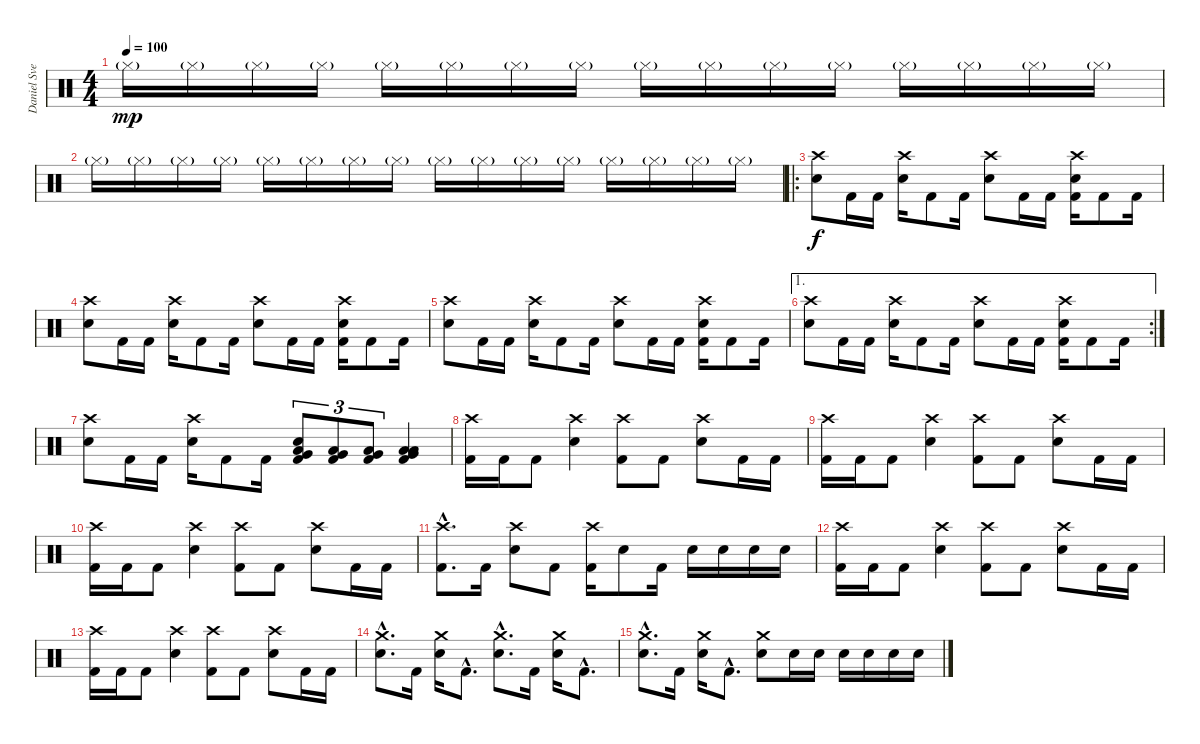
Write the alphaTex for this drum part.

\track ("Daniel Svensson" "Daniel Sve") {instrument percussion}
\staff {score}
\articulation defaults
\ts (4 4)
\tempo 100
\clef neutral
\ks c "Hi-Hat (closed)"{g}.16{dy mp} "Hi-Hat (closed)"{g}.16 "Hi-Hat (closed)"{g}.16 "Hi-Hat (closed)"{g}.16 "Hi-Hat (closed)"{g}.16 "Hi-Hat (closed)"{g}.16 "Hi-Hat (closed)"{g}.16 "Hi-Hat (closed)"{g}.16 "Hi-Hat (closed)"{g}.16 "Hi-Hat (closed)"{g}.16 "Hi-Hat (closed)"{g}.16 "Hi-Hat (closed)"{g}.16 "Hi-Hat (closed)"{g}.16 "Hi-Hat (closed)"{g}.16 "Hi-Hat (closed)"{g}.16 "Hi-Hat (closed)"{g}.16
|
"Hi-Hat (closed)"{g}.16 "Hi-Hat (closed)"{g}.16 "Hi-Hat (closed)"{g}.16 "Hi-Hat (closed)"{g}.16 "Hi-Hat (closed)"{g}.16 "Hi-Hat (closed)"{g}.16 "Hi-Hat (closed)"{g}.16 "Hi-Hat (closed)"{g}.16 "Hi-Hat (closed)"{g}.16 "Hi-Hat (closed)"{g}.16 "Hi-Hat (closed)"{g}.16 "Hi-Hat (closed)"{g}.16 "Hi-Hat (closed)"{g}.16 "Hi-Hat (closed)"{g}.16 "Hi-Hat (closed)"{g}.16 "Hi-Hat (closed)"{g}.16 |
\ro
("Crash high (hit)" "Snare (hit) 2").8{dy f} "Kick (hit) 2".16 "Kick (hit) 2".16 ("Crash high (hit)" "Snare (hit) 2").16 "Kick (hit) 2".8 "Kick (hit) 2".16 ("Crash high (hit)" "Snare (hit) 2").8 "Kick (hit) 2".16 "Kick (hit) 2".16 ("Crash high (hit)" "Snare (hit) 2" "Kick (hit) 2").16 "Kick (hit) 2".8 "Kick (hit) 2".16 |
("Crash high (hit)" "Snare (hit) 2").8 "Kick (hit) 2".16 "Kick (hit) 2".16 ("Crash high (hit)" "Snare (hit) 2").16 "Kick (hit) 2".8 "Kick (hit) 2".16 ("Crash high (hit)" "Snare (hit) 2").8 "Kick (hit) 2".16 "Kick (hit) 2".16 ("Crash high (hit)" "Snare (hit) 2" "Kick (hit) 2").16 "Kick (hit) 2".8 "Kick (hit) 2".16 |
("Crash high (hit)" "Snare (hit) 2").8 "Kick (hit) 2".16 "Kick (hit) 2".16 ("Crash high (hit)" "Snare (hit) 2").16 "Kick (hit) 2".8 "Kick (hit) 2".16 ("Crash high (hit)" "Snare (hit) 2").8 "Kick (hit) 2".16 "Kick (hit) 2".16 ("Crash high (hit)" "Snare (hit) 2" "Kick (hit) 2").16 "Kick (hit) 2".8 "Kick (hit) 2".16 |
\ae 1
\rc 2
("Crash high (hit)" "Snare (hit) 2").8 "Kick (hit) 2".16 "Kick (hit) 2".16 ("Crash high (hit)" "Snare (hit) 2").16 "Kick (hit) 2".8 "Kick (hit) 2".16 ("Crash high (hit)" "Snare (hit) 2").8 "Kick (hit) 2".16 "Kick (hit) 2".16 ("Crash high (hit)" "Snare (hit) 2" "Kick (hit) 2").16 "Kick (hit) 2".8 "Kick (hit) 2".16 |
("Crash high (hit)" "Snare (hit) 2").8 "Kick (hit) 2".16 "Kick (hit) 2".16 ("Crash high (hit)" "Snare (hit) 2").16 "Kick (hit) 2".8 "Kick (hit) 2".16 ("Low Floor Tom (hit)" "Very Low Tom (hit)" "Snare (hit) 2" "Kick (hit) 2").8{tu (3 2)} ("Low Floor Tom (hit)" "Very Low Tom (hit)" "Kick (hit) 2").8{tu (3 2)} ("Low Floor Tom (hit)" "Very Low Tom (hit)" "Kick (hit) 2").8{tu (3 2)} ("Low Floor Tom (hit)" "Very Low Tom (hit)" "Low Tom (hit)" "Kick (hit) 2").4 |
("Crash high (hit)" "Kick (hit) 2").16 "Kick (hit) 2".16 "Kick (hit) 2".8 ("Crash high (hit)" "Snare (hit) 2").4 ("Crash high (hit)" "Kick (hit) 2").8 "Kick (hit) 2".8 ("Crash high (hit)" "Snare (hit) 2").8 "Kick (hit) 2".16 "Kick (hit) 2".16 |
("Crash high (hit)" "Kick (hit) 2").16 "Kick (hit) 2".16 "Kick (hit) 2".8 ("Crash high (hit)" "Snare (hit) 2").4 ("Crash high (hit)" "Kick (hit) 2").8 "Kick (hit) 2".8 ("Crash high (hit)" "Snare (hit) 2").8 "Kick (hit) 2".16 "Kick (hit) 2".16 |
("Crash high (hit)" "Kick (hit) 2").16 "Kick (hit) 2".16 "Kick (hit) 2".8 ("Crash high (hit)" "Snare (hit) 2").4 ("Crash high (hit)" "Kick (hit) 2").8 "Kick (hit) 2".8 ("Crash high (hit)" "Snare (hit) 2").8 "Kick (hit) 2".16 "Kick (hit) 2".16 |
("Crash high (hit)"{hac} "Kick (hit) 2"{hac}).8{d} "Kick (hit) 2".16 ("Crash high (hit)" "Snare (hit) 2").8 "Kick (hit) 2".8 ("Crash high (hit)" "Kick (hit) 2").16 "Snare (hit) 2".8 "Kick (hit) 2".16 "Snare (hit) 2".16 "Snare (hit) 2".16 "Snare (hit) 2".16 "Snare (hit) 2".16 |
("Crash high (hit)" "Kick (hit) 2").16 "Kick (hit) 2".16 "Kick (hit) 2".8 ("Crash high (hit)" "Snare (hit) 2").4 ("Crash high (hit)" "Kick (hit) 2").8 "Kick (hit) 2".8 ("Crash high (hit)" "Snare (hit) 2").8 "Kick (hit) 2".16 "Kick (hit) 2".16 |
("Crash high (hit)" "Kick (hit) 2").16 "Kick (hit) 2".16 "Kick (hit) 2".8 ("Crash high (hit)" "Snare (hit) 2").4 ("Crash high (hit)" "Kick (hit) 2").8 "Kick (hit) 2".8 ("Crash high (hit)" "Snare (hit) 2").8 "Kick (hit) 2".16 "Kick (hit) 2".16 |
("Crash medium (hit)"{hac} "Snare (hit) 2"{hac}).8{d} "Kick (hit) 2".16 ("Crash medium (hit)" "Snare (hit) 2").16 "Kick (hit) 2"{hac}.8{d} ("Crash medium (hit)"{hac} "Snare (hit) 2"{hac}).8{d} "Kick (hit) 2".16 ("Crash medium (hit)" "Snare (hit) 2").16 "Kick (hit) 2"{hac}.8{d} |
("Crash medium (hit)"{hac} "Snare (hit) 2"{hac}).8{d} "Kick (hit) 2".16 ("Crash medium (hit)" "Snare (hit) 2").16 "Kick (hit) 2"{hac}.8{d} ("Crash medium (hit)" "Snare (hit) 2").8 "Snare (hit) 2".16 "Snare (hit) 2".16 "Snare (hit) 2".16 "Snare (hit) 2".16 "Snare (hit) 2".16 "Snare (hit) 2".16
